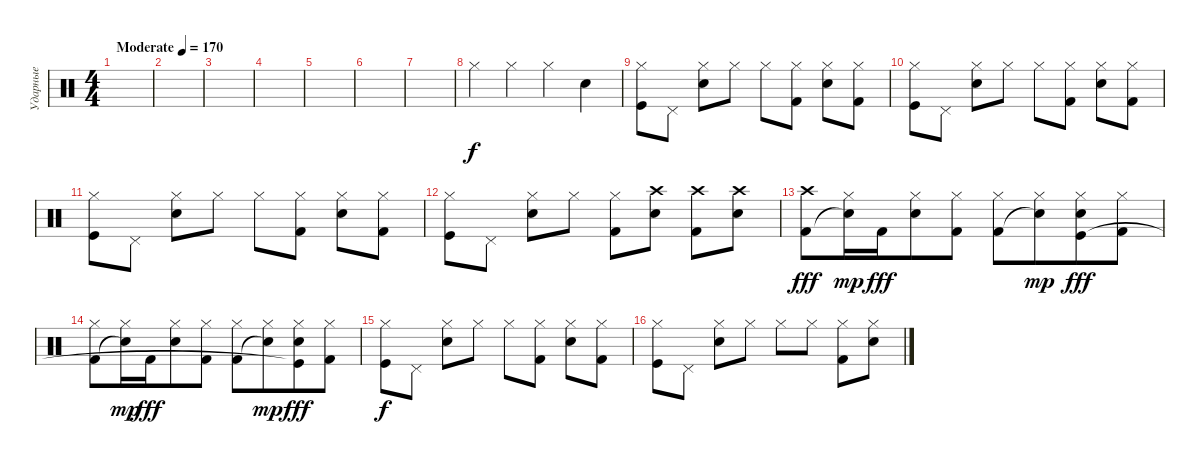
\track ("Ударные" "Ударные") {instrument percussion}
\staff {score}
\articulation defaults
\ts (4 4)
\tempo (170 "Moderate")
\clef neutral
\ks c
|
|
|
|
|
|
|
"Hi-Hat (closed)".4 "Hi-Hat (closed)".4 "Hi-Hat (closed)".4 "Electric Snare (hit)".4 |
("Kick (hit)" "Hi-Hat (closed)").8 "Pedal Hi-Hat (hit)".8 ("Electric Snare (hit)" "Hi-Hat (closed)").8 "Hi-Hat (closed)".8 "Hi-Hat (closed)".8 ("Kick (hit) 2" "Hi-Hat (closed)").8 ("Electric Snare (hit)" "Hi-Hat (closed)").8 ("Kick (hit) 2" "Hi-Hat (closed)").8 |
("Kick (hit)" "Hi-Hat (closed)").8 "Pedal Hi-Hat (hit)".8 ("Electric Snare (hit)" "Hi-Hat (closed)").8 "Hi-Hat (closed)".8 "Hi-Hat (closed)".8 ("Kick (hit) 2" "Hi-Hat (closed)").8 ("Electric Snare (hit)" "Hi-Hat (closed)").8 ("Kick (hit) 2" "Hi-Hat (closed)").8 |
("Kick (hit)" "Hi-Hat (closed)").8 "Pedal Hi-Hat (hit)".8 ("Electric Snare (hit)" "Hi-Hat (closed)").8 "Hi-Hat (closed)".8 "Hi-Hat (closed)".8 ("Kick (hit) 2" "Hi-Hat (closed)").8 ("Electric Snare (hit)" "Hi-Hat (closed)").8 ("Kick (hit) 2" "Hi-Hat (closed)").8 |
("Kick (hit)" "Hi-Hat (closed)").8 "Pedal Hi-Hat (hit)".8 ("Electric Snare (hit)" "Hi-Hat (closed)").8 "Hi-Hat (closed)".8 ("Kick (hit) 2" "Hi-Hat (closed)").8 ("Electric Snare (hit)" "Crash high (hit)").8 ("Kick (hit) 2" "Crash high (hit)").8 ("Electric Snare (hit)" "Crash high (hit)").8 |
("Crash high (hit)" "Kick (hit) 2").8{dy fff} ("Hi-Hat (closed)" "Snare (hit)"{t}).16{dy mp} "Kick (hit) 2".16{dy fff beam merge} ("Hi-Hat (closed)" "Electric Snare (hit)").8 ("Hi-Hat (closed)" "Kick (hit) 2").8 ("Hi-Hat (closed)" "Kick (hit) 2").8 ("Hi-Hat (closed)" "Snare (hit)"{t}).8{dy mp beam merge} ("Hi-Hat (closed)" "Electric Snare (hit)" "Kick (hit)").8{dy fff} ("Hi-Hat (closed)" "Kick (hit) 2").8 |
("Hi-Hat (closed)" "Kick (hit) 2").8 ("Hi-Hat (closed)" "Snare (hit)"{t}).16{dy mp} "Kick (hit) 2".16{dy fff beam merge} ("Hi-Hat (closed)" "Electric Snare (hit)").8 ("Hi-Hat (closed)" "Kick (hit) 2").8 ("Hi-Hat (closed)" "Kick (hit) 2").8 ("Hi-Hat (closed)" "Snare (hit)"{t}).8{dy mp beam merge} ("Hi-Hat (closed)" "Electric Snare (hit)" "Kick (hit)"{t}).8{dy fff} ("Hi-Hat (closed)" "Kick (hit) 2").8 |
("Kick (hit)" "Hi-Hat (closed)").8{dy f} "Pedal Hi-Hat (hit)".8 ("Electric Snare (hit)" "Hi-Hat (closed)").8 "Hi-Hat (closed)".8 "Hi-Hat (closed)".8 ("Kick (hit) 2" "Hi-Hat (closed)").8 ("Electric Snare (hit)" "Hi-Hat (closed)").8 ("Kick (hit) 2" "Hi-Hat (closed)").8 |
("Kick (hit)" "Hi-Hat (closed)").8 "Pedal Hi-Hat (hit)".8 ("Electric Snare (hit)" "Hi-Hat (closed)").8 "Hi-Hat (closed)".8 "Hi-Hat (closed)".8 "Hi-Hat (closed)".8 ("Kick (hit) 2" "Hi-Hat (closed)").8 ("Electric Snare (hit)" "Hi-Hat (closed)").8
